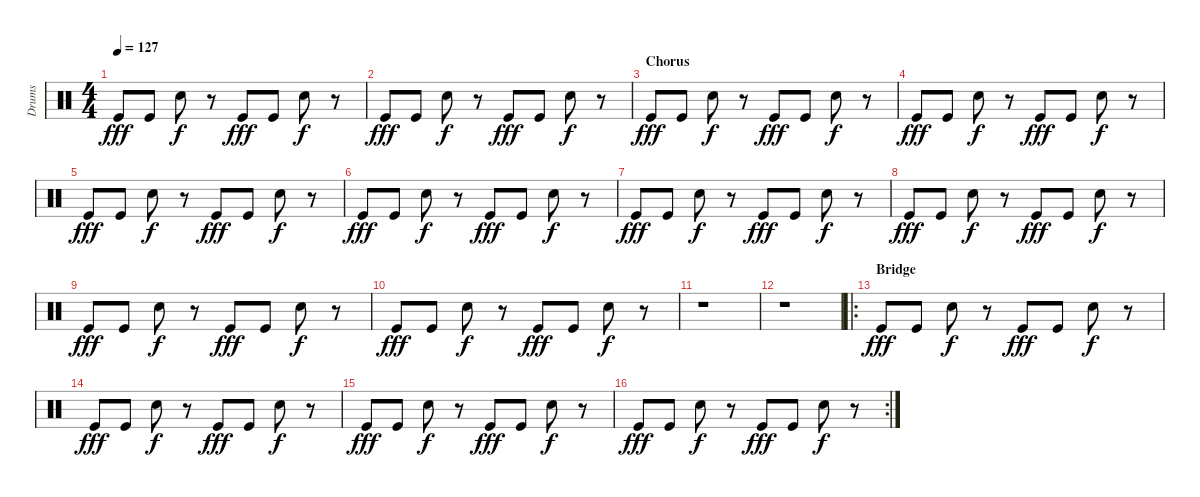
\track ("Drums" "Drums") {instrument percussion}
\staff {score}
\articulation defaults
\ts (4 4)
\tempo 127
\clef neutral
\ks c "Kick (hit)".8{dy fff} "Kick (hit)".8 "Electric Snare (hit)".8{dy f}
r.8 "Kick (hit)".8{dy fff} "Kick (hit)".8 "Electric Snare (hit)".8{dy f} r.8 |
"Kick (hit)".8{dy fff} "Kick (hit)".8 "Electric Snare (hit)".8{dy f} r.8 "Kick (hit)".8{dy fff} "Kick (hit)".8 "Electric Snare (hit)".8{dy f} r.8 |
\section ("" "Chorus")
"Kick (hit)".8{dy fff} "Kick (hit)".8 "Electric Snare (hit)".8{dy f} r.8 "Kick (hit)".8{dy fff} "Kick (hit)".8 "Electric Snare (hit)".8{dy f} r.8 |
"Kick (hit)".8{dy fff} "Kick (hit)".8 "Electric Snare (hit)".8{dy f} r.8 "Kick (hit)".8{dy fff} "Kick (hit)".8 "Electric Snare (hit)".8{dy f} r.8 |
"Kick (hit)".8{dy fff} "Kick (hit)".8 "Electric Snare (hit)".8{dy f} r.8 "Kick (hit)".8{dy fff} "Kick (hit)".8 "Electric Snare (hit)".8{dy f} r.8 |
"Kick (hit)".8{dy fff} "Kick (hit)".8 "Electric Snare (hit)".8{dy f} r.8 "Kick (hit)".8{dy fff} "Kick (hit)".8 "Electric Snare (hit)".8{dy f} r.8 |
"Kick (hit)".8{dy fff} "Kick (hit)".8 "Electric Snare (hit)".8{dy f} r.8 "Kick (hit)".8{dy fff} "Kick (hit)".8 "Electric Snare (hit)".8{dy f} r.8 |
"Kick (hit)".8{dy fff} "Kick (hit)".8 "Electric Snare (hit)".8{dy f} r.8 "Kick (hit)".8{dy fff} "Kick (hit)".8 "Electric Snare (hit)".8{dy f} r.8 |
"Kick (hit)".8{dy fff} "Kick (hit)".8 "Electric Snare (hit)".8{dy f} r.8 "Kick (hit)".8{dy fff} "Kick (hit)".8 "Electric Snare (hit)".8{dy f} r.8 |
"Kick (hit)".8{dy fff} "Kick (hit)".8 "Electric Snare (hit)".8{dy f} r.8 "Kick (hit)".8{dy fff} "Kick (hit)".8 "Electric Snare (hit)".8{dy f} r.8 |
r.1 |
r.1 |
\ro
\section ("" "Bridge")
"Kick (hit)".8{dy fff} "Kick (hit)".8 "Electric Snare (hit)".8{dy f} r.8 "Kick (hit)".8{dy fff} "Kick (hit)".8 "Electric Snare (hit)".8{dy f} r.8 |
"Kick (hit)".8{dy fff} "Kick (hit)".8 "Electric Snare (hit)".8{dy f} r.8 "Kick (hit)".8{dy fff} "Kick (hit)".8 "Electric Snare (hit)".8{dy f} r.8 |
"Kick (hit)".8{dy fff} "Kick (hit)".8 "Electric Snare (hit)".8{dy f} r.8 "Kick (hit)".8{dy fff} "Kick (hit)".8 "Electric Snare (hit)".8{dy f} r.8 |
\rc 2 "Kick (hit)".8{dy fff} "Kick (hit)".8 "Electric Snare (hit)".8{dy f}
r.8 "Kick (hit)".8{dy fff} "Kick (hit)".8 "Electric Snare (hit)".8{dy f} r.8
